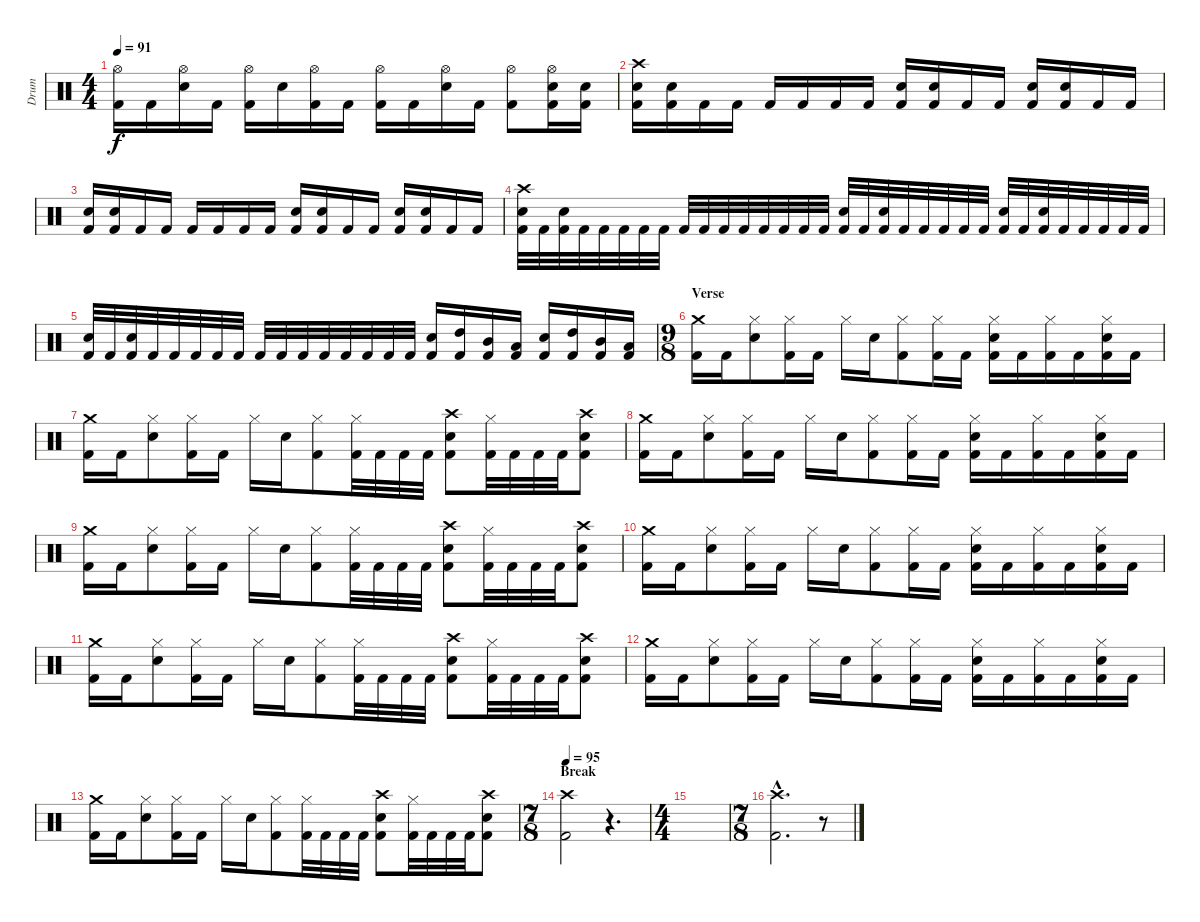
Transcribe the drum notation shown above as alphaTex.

\track ("Drum" "Drum") {instrument percussion}
\staff {score}
\articulation defaults
\ts (4 4)
\tempo 91
\clef neutral
\ks c
("Hi-Hat (open)" "Kick (hit) 2").16{dy f} "Kick (hit) 2".16 ("Hi-Hat (open)" "Snare (hit) 2").16 "Kick (hit) 2".16 ("Hi-Hat (open)" "Kick (hit) 2").16 "Snare (hit) 2".16 ("Hi-Hat (open)" "Kick (hit) 2").16 "Kick (hit) 2".16 ("Hi-Hat (open)" "Kick (hit) 2").16 "Kick (hit) 2".16 ("Hi-Hat (open)" "Snare (hit) 2").16 "Kick (hit) 2".16 ("Hi-Hat (open)" "Kick (hit) 2").8 ("Hi-Hat (open)" "Snare (hit) 2" "Kick (hit) 2").16 ("Snare (hit) 2" "Kick (hit) 2").16 |
("Crash high (hit)" "Snare (hit) 2" "Kick (hit) 2").16 ("Snare (hit) 2" "Kick (hit) 2").16 "Kick (hit) 2".16 "Kick (hit) 2".16 "Kick (hit) 2".16 "Kick (hit) 2".16 "Kick (hit) 2".16 "Kick (hit) 2".16 ("Snare (hit) 2" "Kick (hit) 2").16 ("Snare (hit) 2" "Kick (hit) 2").16 "Kick (hit) 2".16 "Kick (hit) 2".16 ("Snare (hit) 2" "Kick (hit) 2").16 ("Snare (hit) 2" "Kick (hit) 2").16 "Kick (hit) 2".16 "Kick (hit) 2".16 |
("Snare (hit) 2" "Kick (hit) 2").16 ("Snare (hit) 2" "Kick (hit) 2").16 "Kick (hit) 2".16 "Kick (hit) 2".16 "Kick (hit) 2".16 "Kick (hit) 2".16 "Kick (hit) 2".16 "Kick (hit) 2".16 ("Snare (hit) 2" "Kick (hit) 2").16 ("Snare (hit) 2" "Kick (hit) 2").16 "Kick (hit) 2".16 "Kick (hit) 2".16 ("Snare (hit) 2" "Kick (hit) 2").16 ("Snare (hit) 2" "Kick (hit) 2").16 "Kick (hit) 2".16 "Kick (hit) 2".16 |
("Crash high (hit)" "Snare (hit) 2" "Kick (hit) 2").32 "Kick (hit) 2".32 ("Snare (hit) 2" "Kick (hit) 2").32 "Kick (hit) 2".32 "Kick (hit) 2".32 "Kick (hit) 2".32 "Kick (hit) 2".32 "Kick (hit) 2".32 "Kick (hit) 2".32 "Kick (hit) 2".32 "Kick (hit) 2".32 "Kick (hit) 2".32 "Kick (hit) 2".32 "Kick (hit) 2".32 "Kick (hit) 2".32 "Kick (hit) 2".32 ("Snare (hit) 2" "Kick (hit) 2").32 "Kick (hit) 2".32 ("Snare (hit) 2" "Kick (hit) 2").32 "Kick (hit) 2".32 "Kick (hit) 2".32 "Kick (hit) 2".32 "Kick (hit) 2".32 "Kick (hit) 2".32 ("Snare (hit) 2" "Kick (hit) 2").32 "Kick (hit) 2".32 ("Snare (hit) 2" "Kick (hit) 2").32 "Kick (hit) 2".32 "Kick (hit) 2".32 "Kick (hit) 2".32 "Kick (hit) 2".32 "Kick (hit) 2".32 |
("Snare (hit) 2" "Kick (hit) 2").32 "Kick (hit) 2".32 ("Snare (hit) 2" "Kick (hit) 2").32 "Kick (hit) 2".32 "Kick (hit) 2".32 "Kick (hit) 2".32 "Kick (hit) 2".32 "Kick (hit) 2".32 "Kick (hit) 2".32 "Kick (hit) 2".32 "Kick (hit) 2".32 "Kick (hit) 2".32 "Kick (hit) 2".32 "Kick (hit) 2".32 "Kick (hit) 2".32 "Kick (hit) 2".32 ("Snare (hit) 2" "Kick (hit) 2").16 ("High Tom (hit)" "Kick (hit) 2").16 ("Mid Tom (hit)" "Kick (hit) 2").16 ("Low Tom (hit)" "Kick (hit) 2").16 ("Snare (hit) 2" "Kick (hit) 2").16 ("High Tom (hit)" "Kick (hit) 2").16 ("Mid Tom (hit)" "Kick (hit) 2").16 ("Low Tom (hit)" "Kick (hit) 2").16 |
\ts (9 8)
\section ("" "Verse")
("Crash medium (hit)" "Kick (hit) 2").16 "Kick (hit) 2".16 ("Hi-Hat (closed)" "Snare (hit) 2").8 ("Hi-Hat (closed)" "Kick (hit) 2").16 "Kick (hit) 2".16 "Hi-Hat (closed)".16 "Snare (hit) 2".16 ("Hi-Hat (closed)" "Kick (hit) 2").8 ("Hi-Hat (closed)" "Kick (hit) 2").16 "Kick (hit) 2".16 ("Hi-Hat (closed)" "Snare (hit) 2" "Kick (hit) 2").16 "Kick (hit) 2".16 ("Hi-Hat (closed)" "Kick (hit) 2").16 "Kick (hit) 2".16 ("Hi-Hat (closed)" "Snare (hit) 2" "Kick (hit) 2").16 "Kick (hit) 2".16 |
("Crash medium (hit)" "Kick (hit) 2").16 "Kick (hit) 2".16 ("Hi-Hat (closed)" "Snare (hit) 2").8 ("Hi-Hat (closed)" "Kick (hit) 2").16 "Kick (hit) 2".16 "Hi-Hat (closed)".16 "Snare (hit) 2".16 ("Hi-Hat (closed)" "Kick (hit) 2").8 ("Hi-Hat (closed)" "Kick (hit) 2").32 "Kick (hit) 2".32 "Kick (hit) 2".32 "Kick (hit) 2".32 ("Crash high (hit)" "Snare (hit) 2" "Kick (hit) 2").8 ("Hi-Hat (closed)" "Kick (hit) 2").32 "Kick (hit) 2".32 "Kick (hit) 2".32 "Kick (hit) 2".32 ("Crash high (hit)" "Snare (hit) 2" "Kick (hit) 2").8 |
("Crash medium (hit)" "Kick (hit) 2").16 "Kick (hit) 2".16 ("Hi-Hat (closed)" "Snare (hit) 2").8 ("Hi-Hat (closed)" "Kick (hit) 2").16 "Kick (hit) 2".16 "Hi-Hat (closed)".16 "Snare (hit) 2".16 ("Hi-Hat (closed)" "Kick (hit) 2").8 ("Hi-Hat (closed)" "Kick (hit) 2").16 "Kick (hit) 2".16 ("Hi-Hat (closed)" "Snare (hit) 2" "Kick (hit) 2").16 "Kick (hit) 2".16 ("Hi-Hat (closed)" "Kick (hit) 2").16 "Kick (hit) 2".16 ("Hi-Hat (closed)" "Snare (hit) 2" "Kick (hit) 2").16 "Kick (hit) 2".16 |
("Crash medium (hit)" "Kick (hit) 2").16 "Kick (hit) 2".16 ("Hi-Hat (closed)" "Snare (hit) 2").8 ("Hi-Hat (closed)" "Kick (hit) 2").16 "Kick (hit) 2".16 "Hi-Hat (closed)".16 "Snare (hit) 2".16 ("Hi-Hat (closed)" "Kick (hit) 2").8 ("Hi-Hat (closed)" "Kick (hit) 2").32 "Kick (hit) 2".32 "Kick (hit) 2".32 "Kick (hit) 2".32 ("Crash high (hit)" "Snare (hit) 2" "Kick (hit) 2").8 ("Hi-Hat (closed)" "Kick (hit) 2").32 "Kick (hit) 2".32 "Kick (hit) 2".32 "Kick (hit) 2".32 ("Crash high (hit)" "Snare (hit) 2" "Kick (hit) 2").8 |
("Crash medium (hit)" "Kick (hit) 2").16 "Kick (hit) 2".16 ("Hi-Hat (closed)" "Snare (hit) 2").8 ("Hi-Hat (closed)" "Kick (hit) 2").16 "Kick (hit) 2".16 "Hi-Hat (closed)".16 "Snare (hit) 2".16 ("Hi-Hat (closed)" "Kick (hit) 2").8 ("Hi-Hat (closed)" "Kick (hit) 2").16 "Kick (hit) 2".16 ("Hi-Hat (closed)" "Snare (hit) 2" "Kick (hit) 2").16 "Kick (hit) 2".16 ("Hi-Hat (closed)" "Kick (hit) 2").16 "Kick (hit) 2".16 ("Hi-Hat (closed)" "Snare (hit) 2" "Kick (hit) 2").16 "Kick (hit) 2".16 |
("Crash medium (hit)" "Kick (hit) 2").16 "Kick (hit) 2".16 ("Hi-Hat (closed)" "Snare (hit) 2").8 ("Hi-Hat (closed)" "Kick (hit) 2").16 "Kick (hit) 2".16 "Hi-Hat (closed)".16 "Snare (hit) 2".16 ("Hi-Hat (closed)" "Kick (hit) 2").8 ("Hi-Hat (closed)" "Kick (hit) 2").32 "Kick (hit) 2".32 "Kick (hit) 2".32 "Kick (hit) 2".32 ("Crash high (hit)" "Snare (hit) 2" "Kick (hit) 2").8 ("Hi-Hat (closed)" "Kick (hit) 2").32 "Kick (hit) 2".32 "Kick (hit) 2".32 "Kick (hit) 2".32 ("Crash high (hit)" "Snare (hit) 2" "Kick (hit) 2").8 |
("Crash medium (hit)" "Kick (hit) 2").16 "Kick (hit) 2".16 ("Hi-Hat (closed)" "Snare (hit) 2").8 ("Hi-Hat (closed)" "Kick (hit) 2").16 "Kick (hit) 2".16 "Hi-Hat (closed)".16 "Snare (hit) 2".16 ("Hi-Hat (closed)" "Kick (hit) 2").8 ("Hi-Hat (closed)" "Kick (hit) 2").16 "Kick (hit) 2".16 ("Hi-Hat (closed)" "Snare (hit) 2" "Kick (hit) 2").16 "Kick (hit) 2".16 ("Hi-Hat (closed)" "Kick (hit) 2").16 "Kick (hit) 2".16 ("Hi-Hat (closed)" "Snare (hit) 2" "Kick (hit) 2").16 "Kick (hit) 2".16 |
("Crash medium (hit)" "Kick (hit) 2").16 "Kick (hit) 2".16 ("Hi-Hat (closed)" "Snare (hit) 2").8 ("Hi-Hat (closed)" "Kick (hit) 2").16 "Kick (hit) 2".16 "Hi-Hat (closed)".16 "Snare (hit) 2".16 ("Hi-Hat (closed)" "Kick (hit) 2").8 ("Hi-Hat (closed)" "Kick (hit) 2").32 "Kick (hit) 2".32 "Kick (hit) 2".32 "Kick (hit) 2".32 ("Crash high (hit)" "Snare (hit) 2" "Kick (hit) 2").8 ("Hi-Hat (closed)" "Kick (hit) 2").32 "Kick (hit) 2".32 "Kick (hit) 2".32 "Kick (hit) 2".32 ("Crash high (hit)" "Snare (hit) 2" "Kick (hit) 2").8 |
\ts (7 8)
\section ("" "Break")
\tempo 95
("Crash high (hit)" "Kick (hit) 2").2 r.4{d} |
\ts (4 4)
|
\ts (7 8)
("Crash high (hit)"{hac} "Kick (hit) 2"{hac}).2{d} r.8
